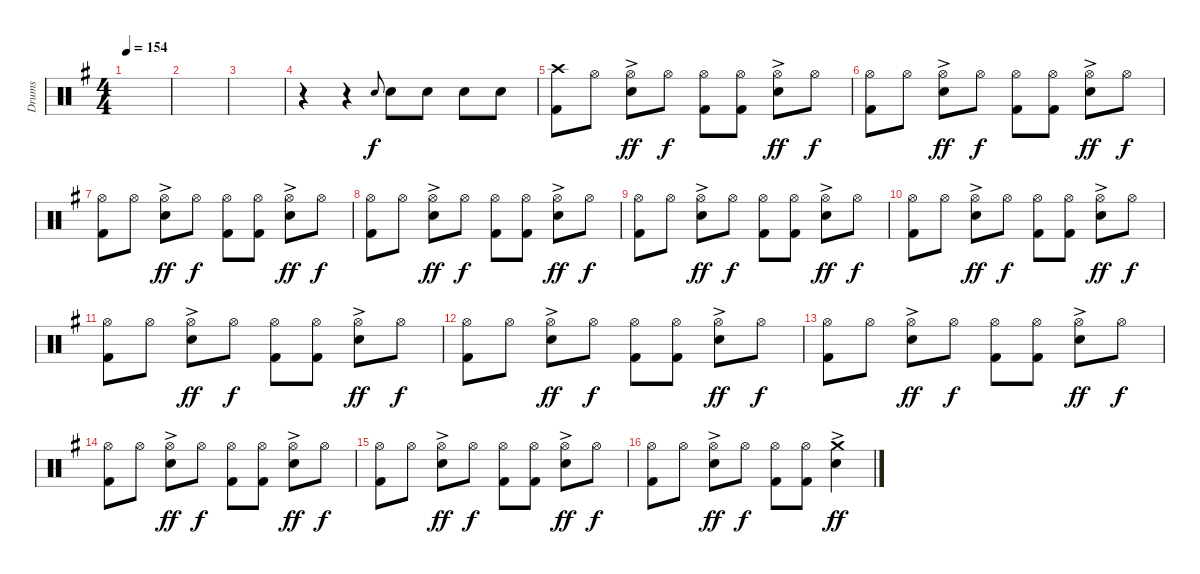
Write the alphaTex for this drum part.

\track ("Drums" "Drums") {instrument percussion}
\staff {score}
\articulation defaults
\ts (4 4)
\tempo 154
\clef neutral
\ks g
|
|
|
r.4 r.4 "Electric Snare (hit)".8{gr onbeat} "Electric Snare (hit)".8 "Electric Snare (hit)".8 "Electric Snare (hit)".8 "Electric Snare (hit)".8 |
("Crash high (hit)" "Kick (hit) 2").8 "Hi-Hat (open)".8 ("Hi-Hat (open)" "Electric Snare (hit)"{ac}).8{dy ff} "Hi-Hat (open)".8{dy f} ("Hi-Hat (open)" "Kick (hit) 2").8 ("Kick (hit) 2" "Hi-Hat (open)").8 ("Hi-Hat (open)" "Electric Snare (hit)"{ac}).8{dy ff} "Hi-Hat (open)".8{dy f} |
("Hi-Hat (open)" "Kick (hit) 2").8 "Hi-Hat (open)".8 ("Hi-Hat (open)" "Electric Snare (hit)"{ac}).8{dy ff} "Hi-Hat (open)".8{dy f} ("Hi-Hat (open)" "Kick (hit) 2").8 ("Kick (hit) 2" "Hi-Hat (open)").8 ("Hi-Hat (open)" "Electric Snare (hit)"{ac}).8{dy ff} "Hi-Hat (open)".8{dy f} |
("Hi-Hat (open)" "Kick (hit) 2").8 "Hi-Hat (open)".8 ("Hi-Hat (open)" "Electric Snare (hit)"{ac}).8{dy ff} "Hi-Hat (open)".8{dy f} ("Hi-Hat (open)" "Kick (hit) 2").8 ("Kick (hit) 2" "Hi-Hat (open)").8 ("Hi-Hat (open)" "Electric Snare (hit)"{ac}).8{dy ff} "Hi-Hat (open)".8{dy f} |
("Hi-Hat (open)" "Kick (hit) 2").8 "Hi-Hat (open)".8 ("Hi-Hat (open)" "Electric Snare (hit)"{ac}).8{dy ff} "Hi-Hat (open)".8{dy f} ("Hi-Hat (open)" "Kick (hit) 2").8 ("Kick (hit) 2" "Hi-Hat (open)").8 ("Hi-Hat (open)" "Electric Snare (hit)"{ac}).8{dy ff} "Hi-Hat (open)".8{dy f} |
("Hi-Hat (open)" "Kick (hit) 2").8 "Hi-Hat (open)".8 ("Hi-Hat (open)" "Electric Snare (hit)"{ac}).8{dy ff} "Hi-Hat (open)".8{dy f} ("Hi-Hat (open)" "Kick (hit) 2").8 ("Kick (hit) 2" "Hi-Hat (open)").8 ("Hi-Hat (open)" "Electric Snare (hit)"{ac}).8{dy ff} "Hi-Hat (open)".8{dy f} |
("Hi-Hat (open)" "Kick (hit) 2").8 "Hi-Hat (open)".8 ("Hi-Hat (open)" "Electric Snare (hit)"{ac}).8{dy ff} "Hi-Hat (open)".8{dy f} ("Hi-Hat (open)" "Kick (hit) 2").8 ("Kick (hit) 2" "Hi-Hat (open)").8 ("Hi-Hat (open)" "Electric Snare (hit)"{ac}).8{dy ff} "Hi-Hat (open)".8{dy f} |
("Hi-Hat (open)" "Kick (hit) 2").8 "Hi-Hat (open)".8 ("Hi-Hat (open)" "Electric Snare (hit)"{ac}).8{dy ff} "Hi-Hat (open)".8{dy f} ("Hi-Hat (open)" "Kick (hit) 2").8 ("Kick (hit) 2" "Hi-Hat (open)").8 ("Hi-Hat (open)" "Electric Snare (hit)"{ac}).8{dy ff} "Hi-Hat (open)".8{dy f} |
("Hi-Hat (open)" "Kick (hit) 2").8 "Hi-Hat (open)".8 ("Hi-Hat (open)" "Electric Snare (hit)"{ac}).8{dy ff} "Hi-Hat (open)".8{dy f} ("Hi-Hat (open)" "Kick (hit) 2").8 ("Kick (hit) 2" "Hi-Hat (open)").8 ("Hi-Hat (open)" "Electric Snare (hit)"{ac}).8{dy ff} "Hi-Hat (open)".8{dy f} |
("Hi-Hat (open)" "Kick (hit) 2").8 "Hi-Hat (open)".8 ("Hi-Hat (open)" "Electric Snare (hit)"{ac}).8{dy ff} "Hi-Hat (open)".8{dy f} ("Hi-Hat (open)" "Kick (hit) 2").8 ("Kick (hit) 2" "Hi-Hat (open)").8 ("Hi-Hat (open)" "Electric Snare (hit)"{ac}).8{dy ff} "Hi-Hat (open)".8{dy f} |
("Hi-Hat (open)" "Kick (hit) 2").8 "Hi-Hat (open)".8 ("Hi-Hat (open)" "Electric Snare (hit)"{ac}).8{dy ff} "Hi-Hat (open)".8{dy f} ("Hi-Hat (open)" "Kick (hit) 2").8 ("Kick (hit) 2" "Hi-Hat (open)").8 ("Hi-Hat (open)" "Electric Snare (hit)"{ac}).8{dy ff} "Hi-Hat (open)".8{dy f} |
("Hi-Hat (open)" "Kick (hit) 2").8 "Hi-Hat (open)".8 ("Hi-Hat (open)" "Electric Snare (hit)"{ac}).8{dy ff} "Hi-Hat (open)".8{dy f} ("Hi-Hat (open)" "Kick (hit) 2").8 ("Kick (hit) 2" "Hi-Hat (open)").8 ("Hi-Hat (open)" "Electric Snare (hit)"{ac}).8{dy ff} "Hi-Hat (open)".8{dy f} |
("Hi-Hat (open)" "Kick (hit) 2").8 "Hi-Hat (open)".8 ("Hi-Hat (open)" "Electric Snare (hit)"{ac}).8{dy ff} "Hi-Hat (open)".8{dy f} ("Hi-Hat (open)" "Kick (hit) 2").8 ("Kick (hit) 2" "Hi-Hat (open)").8 ("Crash medium (hit)" "Electric Snare (hit)"{ac}).4{dy ff}
